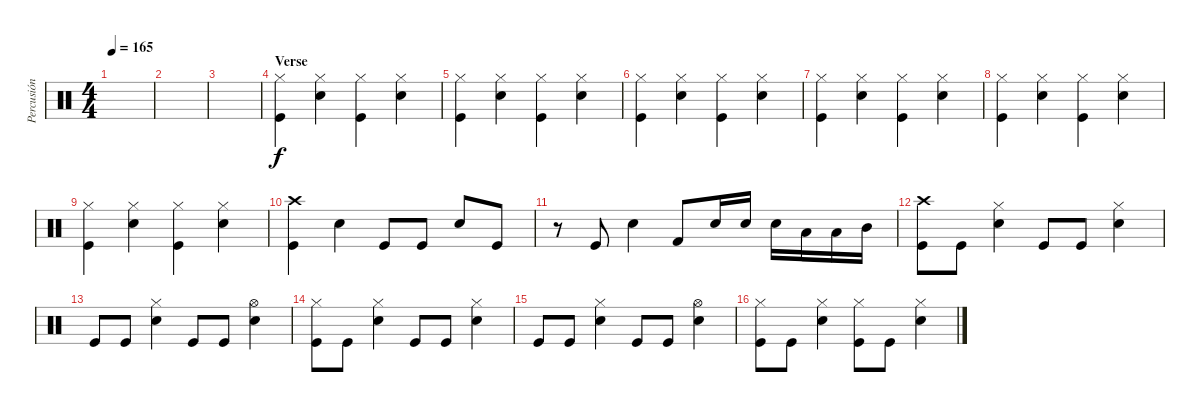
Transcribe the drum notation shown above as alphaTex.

\track ("Percusión" "Percusión") {instrument percussion}
\staff {score}
\articulation defaults
\ts (4 4)
\tempo 165
\clef neutral
\ks c
|
|
|
\section ("" "Verse")
("Hi-Hat (closed)" "Kick (hit)").4 ("Hi-Hat (closed)" "Electric Snare (hit)").4 ("Hi-Hat (closed)" "Kick (hit)").4 ("Hi-Hat (closed)" "Electric Snare (hit)").4 |
("Hi-Hat (closed)" "Kick (hit)").4 ("Hi-Hat (closed)" "Electric Snare (hit)").4 ("Hi-Hat (closed)" "Kick (hit)").4 ("Hi-Hat (closed)" "Electric Snare (hit)").4 |
("Hi-Hat (closed)" "Kick (hit)").4 ("Hi-Hat (closed)" "Electric Snare (hit)").4 ("Hi-Hat (closed)" "Kick (hit)").4 ("Hi-Hat (closed)" "Electric Snare (hit)").4 |
("Hi-Hat (closed)" "Kick (hit)").4 ("Hi-Hat (closed)" "Electric Snare (hit)").4 ("Hi-Hat (closed)" "Kick (hit)").4 ("Hi-Hat (closed)" "Electric Snare (hit)").4 |
("Hi-Hat (closed)" "Kick (hit)").4 ("Hi-Hat (closed)" "Electric Snare (hit)").4 ("Hi-Hat (closed)" "Kick (hit)").4 ("Hi-Hat (closed)" "Electric Snare (hit)").4 |
("Hi-Hat (closed)" "Kick (hit)").4 ("Hi-Hat (closed)" "Electric Snare (hit)").4 ("Hi-Hat (closed)" "Kick (hit)").4 ("Hi-Hat (closed)" "Electric Snare (hit)").4 |
("Crash high (hit)" "Kick (hit)").4 "Electric Snare (hit)".4 "Kick (hit)".8 "Kick (hit)".8 "Electric Snare (hit)".8 "Kick (hit)".8 |
r.8 "Kick (hit)".8 "Electric Snare (hit)".4 "Kick (hit) 2".8 "Electric Snare (hit)".16 "Electric Snare (hit)".16 "Electric Snare (hit)".16 "Low Tom (hit)".16 "Low Tom (hit)".16 "Mid Tom (hit)".16 |
("Crash high (hit)" "Kick (hit)").8 "Kick (hit)".8 ("Electric Snare (hit)" "Hi-Hat (closed)").4 "Kick (hit)".8 "Kick (hit)".8 ("Hi-Hat (closed)" "Electric Snare (hit)").4 |
"Kick (hit)".8 "Kick (hit)".8 ("Hi-Hat (closed)" "Electric Snare (hit)").4 "Kick (hit)".8 "Kick (hit)".8 ("Hi-Hat (open)" "Electric Snare (hit)").4 |
("Hi-Hat (closed)" "Kick (hit)").8 "Kick (hit)".8 ("Hi-Hat (closed)" "Electric Snare (hit)").4 "Kick (hit)".8 "Kick (hit)".8 ("Hi-Hat (closed)" "Electric Snare (hit)").4 |
"Kick (hit)".8 "Kick (hit)".8 ("Hi-Hat (closed)" "Electric Snare (hit)").4 "Kick (hit)".8 "Kick (hit)".8 ("Hi-Hat (open)" "Electric Snare (hit)").4 |
("Hi-Hat (closed)" "Kick (hit)").8 "Kick (hit)".8 ("Electric Snare (hit)" "Hi-Hat (closed)").4 ("Kick (hit)" "Hi-Hat (closed)").8 "Kick (hit)".8 ("Electric Snare (hit)" "Hi-Hat (closed)").4
